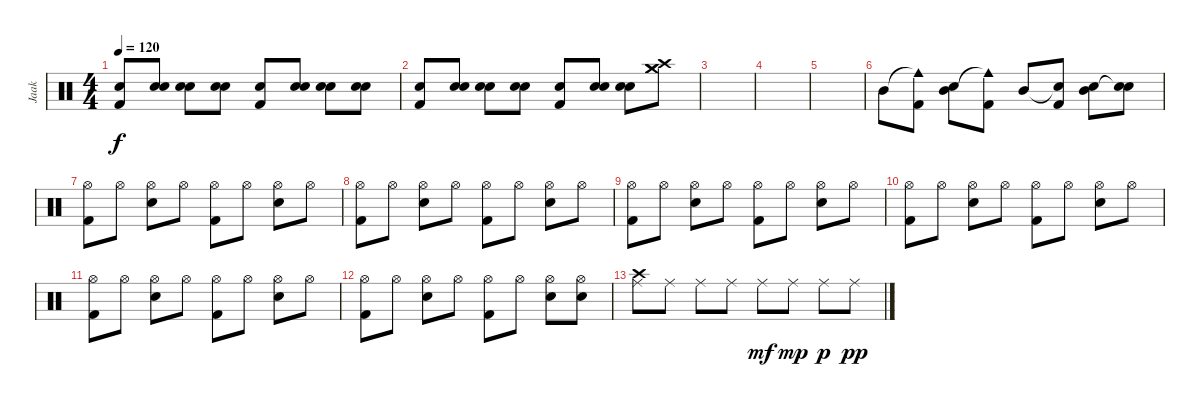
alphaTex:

\track ("Jaak" "Jaak") {instrument percussion}
\staff {score}
\articulation defaults
\ts (4 4)
\tempo 120
\clef neutral
\ks c
("Snare (hit) 2" "Kick (hit) 2").8{dy f} ("Snare (hit) 2" "Snare (hit) 2").8 ("Snare (hit) 2" "Snare (hit) 2").8 ("Snare (hit) 2" "Snare (hit) 2").8 ("Snare (hit) 2" "Kick (hit) 2").8 ("Snare (hit) 2" "Snare (hit) 2").8 ("Snare (hit) 2" "Snare (hit) 2").8 ("Snare (hit) 2" "Snare (hit) 2").8 |
("Snare (hit) 2" "Kick (hit) 2").8 ("Snare (hit) 2" "Snare (hit) 2").8 ("Snare (hit) 2" "Snare (hit) 2").8 ("Snare (hit) 2" "Snare (hit) 2").8 ("Snare (hit) 2" "Kick (hit) 2").8 ("Snare (hit) 2" "Snare (hit) 2").8 ("Snare (hit) 2" "Snare (hit) 2").8 ("Crash high (hit)" "Crash medium (hit)" "Crash medium (hit)").8 |
|
|
|
"Mid Tom (hit)".8 ("Cowbell medium (hit)"{t} "Kick (hit) 2").8 ("Mid Tom (hit)" "Snare (hit) 2").8 ("Cowbell medium (hit)"{t} "Kick (hit) 2").8 "Mid Tom (hit)".8 ("Snare (hit)"{t} "Kick (hit) 2").8 ("Mid Tom (hit)" "Snare (hit) 2").8 ("Snare (hit)"{t} "Snare (hit) 2").8 |
("Hi-Hat (open)" "Kick (hit) 2").8 "Hi-Hat (open)".8 ("Hi-Hat (open)" "Snare (hit) 2").8 "Hi-Hat (open)".8 ("Hi-Hat (open)" "Kick (hit) 2").8 "Hi-Hat (open)".8 ("Hi-Hat (open)" "Snare (hit) 2").8 "Hi-Hat (open)".8 |
("Hi-Hat (open)" "Kick (hit) 2").8 "Hi-Hat (open)".8 ("Hi-Hat (open)" "Snare (hit) 2").8 "Hi-Hat (open)".8 ("Hi-Hat (open)" "Kick (hit) 2").8 "Hi-Hat (open)".8 ("Hi-Hat (open)" "Snare (hit) 2").8 "Hi-Hat (open)".8 |
("Hi-Hat (open)" "Kick (hit) 2").8 "Hi-Hat (open)".8 ("Hi-Hat (open)" "Snare (hit) 2").8 "Hi-Hat (open)".8 ("Hi-Hat (open)" "Kick (hit) 2").8 "Hi-Hat (open)".8 ("Hi-Hat (open)" "Snare (hit) 2").8 "Hi-Hat (open)".8 |
("Hi-Hat (open)" "Kick (hit) 2").8 "Hi-Hat (open)".8 ("Hi-Hat (open)" "Snare (hit) 2").8 "Hi-Hat (open)".8 ("Hi-Hat (open)" "Kick (hit) 2").8 "Hi-Hat (open)".8 ("Hi-Hat (open)" "Snare (hit) 2").8 "Hi-Hat (open)".8 |
("Hi-Hat (open)" "Kick (hit) 2").8 "Hi-Hat (open)".8 ("Hi-Hat (open)" "Snare (hit) 2").8 "Hi-Hat (open)".8 ("Hi-Hat (open)" "Kick (hit) 2").8 "Hi-Hat (open)".8 ("Hi-Hat (open)" "Snare (hit) 2").8 "Hi-Hat (open)".8 |
("Hi-Hat (open)" "Kick (hit) 2").8 "Hi-Hat (open)".8 ("Hi-Hat (open)" "Snare (hit) 2").8 "Hi-Hat (open)".8 ("Hi-Hat (open)" "Kick (hit) 2").8 "Hi-Hat (open)".8 ("Hi-Hat (open)" "Snare (hit) 2").8 ("Hi-Hat (open)" "Snare (hit) 2").8 |
("Crash high (hit)" "Ride (middle)").8 "Ride (middle)".8 "Ride (middle)".8 "Ride (middle)".8 "Ride (middle)".8{dy mf} "Ride (middle)".8{dy mp} "Ride (middle)".8{dy p} "Ride (middle)".8{dy pp}
